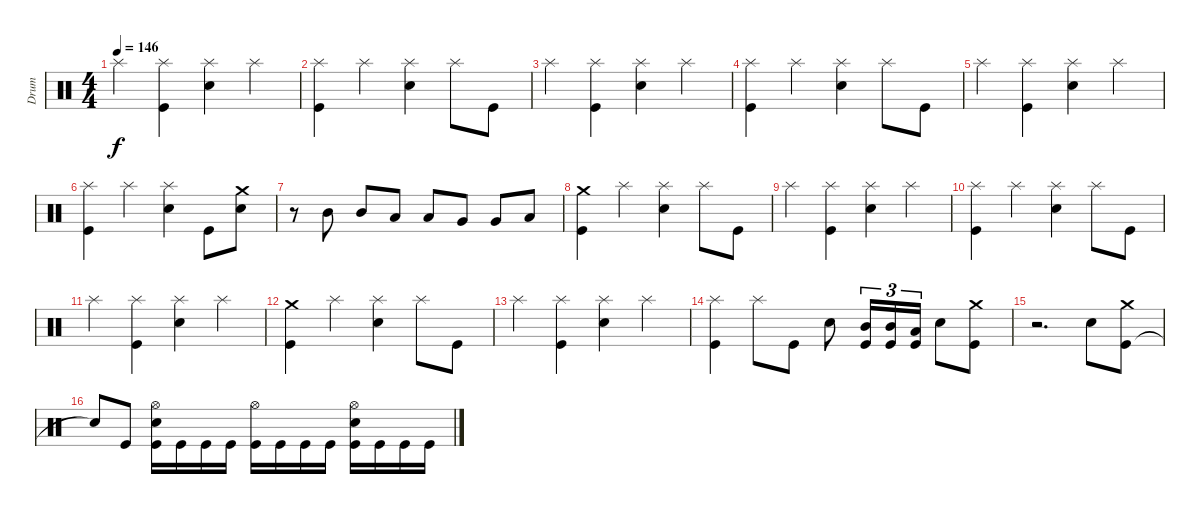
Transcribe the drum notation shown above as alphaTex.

\track ("Drum" "Drum") {instrument percussion}
\staff {score}
\articulation defaults
\ts (4 4)
\tempo 146
\clef neutral
\ks c "Splash (hit)".4{dy f}
("Kick (hit)" "Splash (hit)").4 ("Electric Snare (hit)" "Splash (hit)").4 "Splash (hit)".4 |
("Kick (hit)" "Splash (hit)").4 "Splash (hit)".4 ("Electric Snare (hit)" "Splash (hit)").4 "Splash (hit)".8 "Kick (hit)".8 |
"Splash (hit)".4 ("Kick (hit)" "Splash (hit)").4 ("Electric Snare (hit)" "Splash (hit)").4 "Splash (hit)".4 |
("Kick (hit)" "Splash (hit)").4 "Splash (hit)".4 ("Electric Snare (hit)" "Splash (hit)").4 "Splash (hit)".8 "Kick (hit)".8 |
"Splash (hit)".4 ("Kick (hit)" "Splash (hit)").4 ("Electric Snare (hit)" "Splash (hit)").4 "Splash (hit)".4 |
("Kick (hit)" "Splash (hit)").4 "Splash (hit)".4 ("Electric Snare (hit)" "Splash (hit)").4 "Kick (hit)".8 ("Electric Snare (hit)" "Crash medium (hit)").8 |
r.8 "Mid Tom (hit)".8 "Mid Tom (hit)".8 "Low Tom (hit)".8 "Low Tom (hit)".8 "Very Low Tom (hit)".8 "Very Low Tom (hit)".8 "Low Floor Tom (hit)".8 |
("Kick (hit)" "Crash medium (hit)").4 "Splash (hit)".4 ("Electric Snare (hit)" "Splash (hit)").4 "Splash (hit)".8 "Kick (hit)".8 |
"Splash (hit)".4 ("Kick (hit)" "Splash (hit)").4 ("Electric Snare (hit)" "Splash (hit)").4 "Splash (hit)".4 |
("Kick (hit)" "Splash (hit)").4 "Splash (hit)".4 ("Electric Snare (hit)" "Splash (hit)").4 "Splash (hit)".8 "Kick (hit)".8 |
"Splash (hit)".4 ("Kick (hit)" "Splash (hit)").4 ("Electric Snare (hit)" "Splash (hit)").4 "Splash (hit)".4 |
("Kick (hit)" "Crash medium (hit)").4 "Splash (hit)".4 ("Electric Snare (hit)" "Splash (hit)").4 "Splash (hit)".8 "Kick (hit)".8 |
"Splash (hit)".4 ("Kick (hit)" "Splash (hit)").4 ("Electric Snare (hit)" "Splash (hit)").4 "Splash (hit)".4 |
("Kick (hit)" "Splash (hit)").4 "Splash (hit)".8 "Kick (hit)".8 "Electric Snare (hit)".8 ("Kick (hit)" "Mid Tom (hit)").16{tu (3 2)} ("Kick (hit)" "Mid Tom (hit)").16{tu (3 2)} ("Kick (hit)" "Low Tom (hit)").16{tu (3 2)} "Electric Snare (hit)".8 ("Kick (hit)" "Crash medium (hit)").8 |
r.2{d} "Electric Snare (hit)".8 ("Kick (hit)" "Crash medium (hit)").8 |
"Snare (hit)"{t}.8 "Kick (hit)".8 ("Kick (hit)" "Electric Snare (hit)" "Hi-Hat (open)").16 "Kick (hit)".16 "Kick (hit)".16 "Kick (hit)".16 ("Kick (hit)" "Hi-Hat (open)").16 "Kick (hit)".16 "Kick (hit)".16 "Kick (hit)".16 ("Kick (hit)" "Electric Snare (hit)" "Hi-Hat (open)").16 "Kick (hit)".16 "Kick (hit)".16 "Kick (hit)".16
